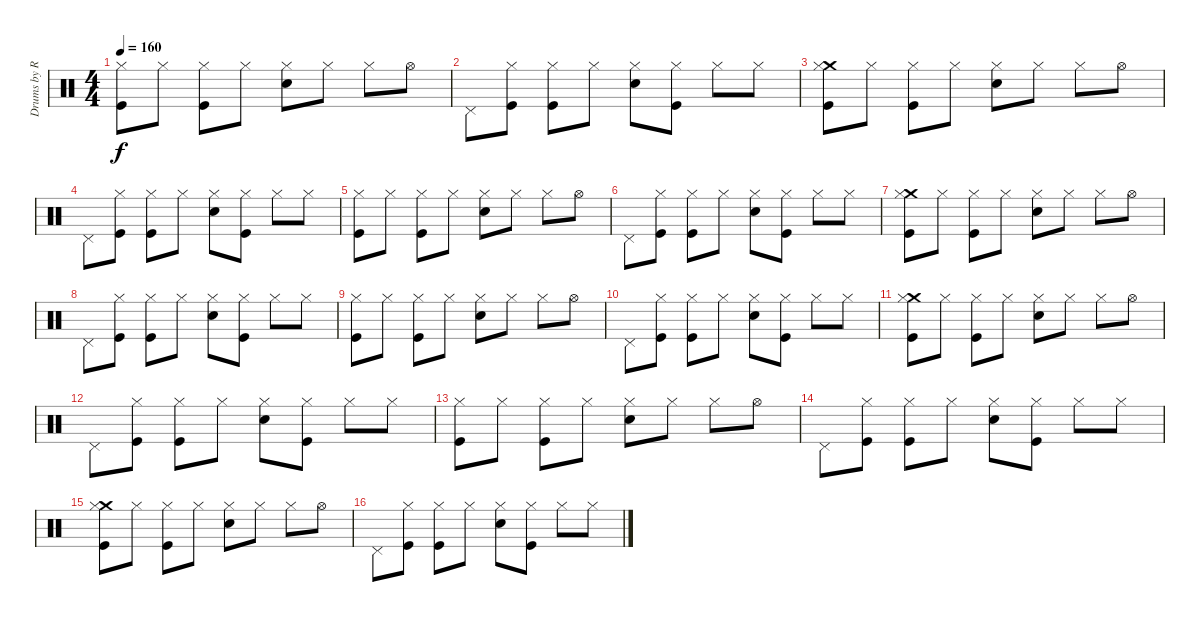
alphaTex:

\track ("Drums by Rob Bourdon" "Drums by R") {instrument percussion}
\staff {score}
\articulation defaults
\ts (4 4)
\tempo 160
\clef neutral
\ks c
("Hi-Hat (closed)" "Kick (hit)").8{dy f} "Hi-Hat (closed)".8 ("Hi-Hat (closed)" "Kick (hit)").8 "Hi-Hat (closed)".8 ("Hi-Hat (closed)" "Snare (hit) 2").8 "Hi-Hat (closed)".8 "Hi-Hat (closed)".8 "Hi-Hat (open)".8 |
"Pedal Hi-Hat (hit)".8 ("Hi-Hat (closed)" "Kick (hit)").8 ("Hi-Hat (closed)" "Kick (hit)").8 "Hi-Hat (closed)".8 ("Hi-Hat (closed)" "Snare (hit) 2").8 ("Hi-Hat (closed)" "Kick (hit)").8 "Hi-Hat (closed)".8 "Hi-Hat (closed)".8 |
("Crash medium (hit)" "Hi-Hat (closed)" "Kick (hit)").8 "Hi-Hat (closed)".8 ("Hi-Hat (closed)" "Kick (hit)").8 "Hi-Hat (closed)".8 ("Hi-Hat (closed)" "Snare (hit) 2").8 "Hi-Hat (closed)".8 "Hi-Hat (closed)".8 "Hi-Hat (open)".8 |
"Pedal Hi-Hat (hit)".8 ("Hi-Hat (closed)" "Kick (hit)").8 ("Hi-Hat (closed)" "Kick (hit)").8 "Hi-Hat (closed)".8 ("Hi-Hat (closed)" "Snare (hit) 2").8 ("Hi-Hat (closed)" "Kick (hit)").8 "Hi-Hat (closed)".8 "Hi-Hat (closed)".8 |
("Hi-Hat (closed)" "Kick (hit)").8 "Hi-Hat (closed)".8 ("Hi-Hat (closed)" "Kick (hit)").8 "Hi-Hat (closed)".8 ("Hi-Hat (closed)" "Snare (hit) 2").8 "Hi-Hat (closed)".8 "Hi-Hat (closed)".8 "Hi-Hat (open)".8 |
"Pedal Hi-Hat (hit)".8 ("Hi-Hat (closed)" "Kick (hit)").8 ("Hi-Hat (closed)" "Kick (hit)").8 "Hi-Hat (closed)".8 ("Hi-Hat (closed)" "Snare (hit) 2").8 ("Hi-Hat (closed)" "Kick (hit)").8 "Hi-Hat (closed)".8 "Hi-Hat (closed)".8 |
("Crash medium (hit)" "Hi-Hat (closed)" "Kick (hit)").8 "Hi-Hat (closed)".8 ("Hi-Hat (closed)" "Kick (hit)").8 "Hi-Hat (closed)".8 ("Hi-Hat (closed)" "Snare (hit) 2").8 "Hi-Hat (closed)".8 "Hi-Hat (closed)".8 "Hi-Hat (open)".8 |
"Pedal Hi-Hat (hit)".8 ("Hi-Hat (closed)" "Kick (hit)").8 ("Hi-Hat (closed)" "Kick (hit)").8 "Hi-Hat (closed)".8 ("Hi-Hat (closed)" "Snare (hit) 2").8 ("Hi-Hat (closed)" "Kick (hit)").8 "Hi-Hat (closed)".8 "Hi-Hat (closed)".8 |
("Hi-Hat (closed)" "Kick (hit)").8 "Hi-Hat (closed)".8 ("Hi-Hat (closed)" "Kick (hit)").8 "Hi-Hat (closed)".8 ("Hi-Hat (closed)" "Snare (hit) 2").8 "Hi-Hat (closed)".8 "Hi-Hat (closed)".8 "Hi-Hat (open)".8 |
"Pedal Hi-Hat (hit)".8 ("Hi-Hat (closed)" "Kick (hit)").8 ("Hi-Hat (closed)" "Kick (hit)").8 "Hi-Hat (closed)".8 ("Hi-Hat (closed)" "Snare (hit) 2").8 ("Hi-Hat (closed)" "Kick (hit)").8 "Hi-Hat (closed)".8 "Hi-Hat (closed)".8 |
("Crash medium (hit)" "Hi-Hat (closed)" "Kick (hit)").8 "Hi-Hat (closed)".8 ("Hi-Hat (closed)" "Kick (hit)").8 "Hi-Hat (closed)".8 ("Hi-Hat (closed)" "Snare (hit) 2").8 "Hi-Hat (closed)".8 "Hi-Hat (closed)".8 "Hi-Hat (open)".8 |
"Pedal Hi-Hat (hit)".8 ("Hi-Hat (closed)" "Kick (hit)").8 ("Hi-Hat (closed)" "Kick (hit)").8 "Hi-Hat (closed)".8 ("Hi-Hat (closed)" "Snare (hit) 2").8 ("Hi-Hat (closed)" "Kick (hit)").8 "Hi-Hat (closed)".8 "Hi-Hat (closed)".8 |
("Hi-Hat (closed)" "Kick (hit)").8 "Hi-Hat (closed)".8 ("Hi-Hat (closed)" "Kick (hit)").8 "Hi-Hat (closed)".8 ("Hi-Hat (closed)" "Snare (hit) 2").8 "Hi-Hat (closed)".8 "Hi-Hat (closed)".8 "Hi-Hat (open)".8 |
"Pedal Hi-Hat (hit)".8 ("Hi-Hat (closed)" "Kick (hit)").8 ("Hi-Hat (closed)" "Kick (hit)").8 "Hi-Hat (closed)".8 ("Hi-Hat (closed)" "Snare (hit) 2").8 ("Hi-Hat (closed)" "Kick (hit)").8 "Hi-Hat (closed)".8 "Hi-Hat (closed)".8 |
("Crash medium (hit)" "Hi-Hat (closed)" "Kick (hit)").8 "Hi-Hat (closed)".8 ("Hi-Hat (closed)" "Kick (hit)").8 "Hi-Hat (closed)".8 ("Hi-Hat (closed)" "Snare (hit) 2").8 "Hi-Hat (closed)".8 "Hi-Hat (closed)".8 "Hi-Hat (open)".8 |
"Pedal Hi-Hat (hit)".8 ("Hi-Hat (closed)" "Kick (hit)").8 ("Hi-Hat (closed)" "Kick (hit)").8 "Hi-Hat (closed)".8 ("Hi-Hat (closed)" "Snare (hit) 2").8 ("Hi-Hat (closed)" "Kick (hit)").8 "Hi-Hat (closed)".8 "Hi-Hat (closed)".8
